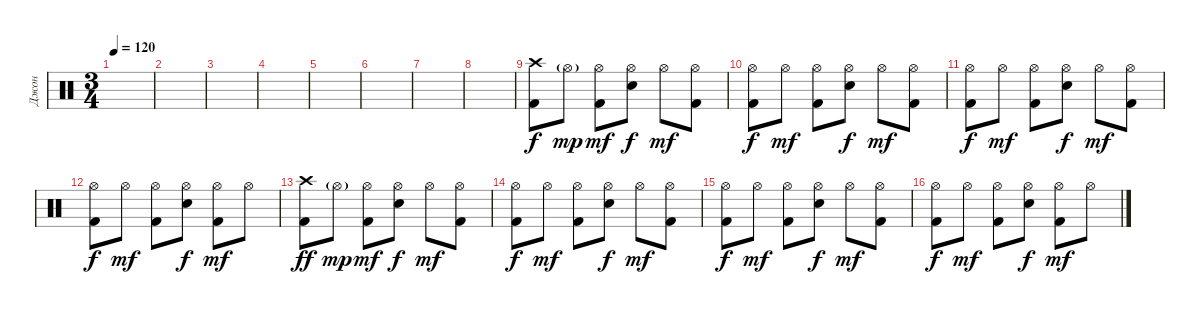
\track ("Джон" "Джон") {instrument percussion}
\staff {score}
\articulation defaults
\ts (3 4)
\tempo 120
\clef neutral
\ks c
|
|
|
|
|
|
|
|
("Crash high (hit)" "Kick (hit) 2").8 "Hi-Hat (open)"{g}.8{dy mp} ("Hi-Hat (open)" "Kick (hit) 2").8{dy mf} ("Hi-Hat (open)" "Electric Snare (hit)").8{dy f} "Hi-Hat (open)".8{dy mf} ("Hi-Hat (open)" "Kick (hit) 2").8 |
("Hi-Hat (open)" "Kick (hit) 2").8{dy f} "Hi-Hat (open)".8{dy mf} ("Hi-Hat (open)" "Kick (hit) 2").8 ("Hi-Hat (open)" "Electric Snare (hit)").8{dy f} "Hi-Hat (open)".8{dy mf} ("Hi-Hat (open)" "Kick (hit) 2").8 |
("Hi-Hat (open)" "Kick (hit) 2").8{dy f} "Hi-Hat (open)".8{dy mf} ("Hi-Hat (open)" "Kick (hit) 2").8 ("Hi-Hat (open)" "Electric Snare (hit)").8{dy f} "Hi-Hat (open)".8{dy mf} ("Hi-Hat (open)" "Kick (hit) 2").8 |
("Hi-Hat (open)" "Kick (hit) 2").8{dy f} "Hi-Hat (open)".8{dy mf} ("Hi-Hat (open)" "Kick (hit) 2").8 ("Hi-Hat (open)" "Electric Snare (hit)").8{dy f} ("Hi-Hat (open)" "Kick (hit) 2").8{dy mf} "Hi-Hat (open)".8 |
("Crash high (hit)" "Kick (hit) 2").8{dy ff} "Hi-Hat (open)"{g}.8{dy mp} ("Hi-Hat (open)" "Kick (hit) 2").8{dy mf} ("Hi-Hat (open)" "Electric Snare (hit)").8{dy f} "Hi-Hat (open)".8{dy mf} ("Hi-Hat (open)" "Kick (hit) 2").8 |
("Hi-Hat (open)" "Kick (hit) 2").8{dy f} "Hi-Hat (open)".8{dy mf} ("Hi-Hat (open)" "Kick (hit) 2").8 ("Hi-Hat (open)" "Electric Snare (hit)").8{dy f} "Hi-Hat (open)".8{dy mf} ("Hi-Hat (open)" "Kick (hit) 2").8 |
("Hi-Hat (open)" "Kick (hit) 2").8{dy f} "Hi-Hat (open)".8{dy mf} ("Hi-Hat (open)" "Kick (hit) 2").8 ("Hi-Hat (open)" "Electric Snare (hit)").8{dy f} "Hi-Hat (open)".8{dy mf} ("Hi-Hat (open)" "Kick (hit) 2").8 |
("Hi-Hat (open)" "Kick (hit) 2").8{dy f} "Hi-Hat (open)".8{dy mf} ("Hi-Hat (open)" "Kick (hit) 2").8 ("Hi-Hat (open)" "Electric Snare (hit)").8{dy f} ("Hi-Hat (open)" "Kick (hit) 2").8{dy mf} "Hi-Hat (open)".8
